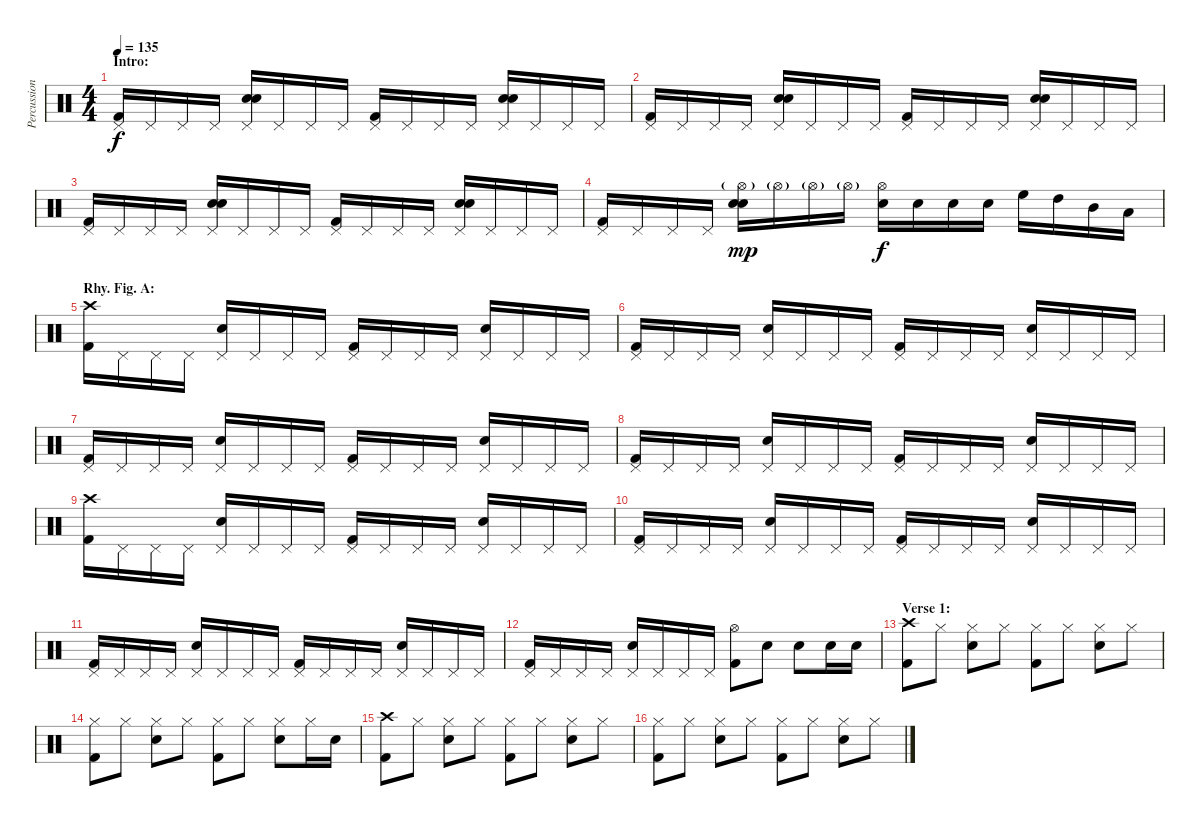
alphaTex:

\track ("Percussion" "Percussion") {instrument percussion}
\staff {score}
\articulation defaults
\ts (4 4)
\section ("" "Intro:")
\tempo 135
\clef neutral
\ks c
("Pedal Hi-Hat (hit)" "Kick (hit) 2").16{dy f} "Pedal Hi-Hat (hit)".16 "Pedal Hi-Hat (hit)".16 "Pedal Hi-Hat (hit)".16 ("Pedal Hi-Hat (hit)" "Hand Clap (hit)" "Snare (hit) 2").16 "Pedal Hi-Hat (hit)".16 "Pedal Hi-Hat (hit)".16 "Pedal Hi-Hat (hit)".16 ("Pedal Hi-Hat (hit)" "Kick (hit) 2").16 "Pedal Hi-Hat (hit)".16 "Pedal Hi-Hat (hit)".16 "Pedal Hi-Hat (hit)".16 ("Pedal Hi-Hat (hit)" "Hand Clap (hit)" "Snare (hit) 2").16 "Pedal Hi-Hat (hit)".16 "Pedal Hi-Hat (hit)".16 "Pedal Hi-Hat (hit)".16 |
("Pedal Hi-Hat (hit)" "Kick (hit) 2").16 "Pedal Hi-Hat (hit)".16 "Pedal Hi-Hat (hit)".16 "Pedal Hi-Hat (hit)".16 ("Pedal Hi-Hat (hit)" "Hand Clap (hit)" "Snare (hit) 2").16 "Pedal Hi-Hat (hit)".16 "Pedal Hi-Hat (hit)".16 "Pedal Hi-Hat (hit)".16 ("Pedal Hi-Hat (hit)" "Kick (hit) 2").16 "Pedal Hi-Hat (hit)".16 "Pedal Hi-Hat (hit)".16 "Pedal Hi-Hat (hit)".16 ("Pedal Hi-Hat (hit)" "Hand Clap (hit)" "Snare (hit) 2").16 "Pedal Hi-Hat (hit)".16 "Pedal Hi-Hat (hit)".16 "Pedal Hi-Hat (hit)".16 |
("Pedal Hi-Hat (hit)" "Kick (hit) 2").16 "Pedal Hi-Hat (hit)".16 "Pedal Hi-Hat (hit)".16 "Pedal Hi-Hat (hit)".16 ("Pedal Hi-Hat (hit)" "Hand Clap (hit)" "Snare (hit) 2").16 "Pedal Hi-Hat (hit)".16 "Pedal Hi-Hat (hit)".16 "Pedal Hi-Hat (hit)".16 ("Pedal Hi-Hat (hit)" "Kick (hit) 2").16 "Pedal Hi-Hat (hit)".16 "Pedal Hi-Hat (hit)".16 "Pedal Hi-Hat (hit)".16 ("Pedal Hi-Hat (hit)" "Hand Clap (hit)" "Snare (hit) 2").16 "Pedal Hi-Hat (hit)".16 "Pedal Hi-Hat (hit)".16 "Pedal Hi-Hat (hit)".16 |
("Pedal Hi-Hat (hit)" "Kick (hit) 2").16 "Pedal Hi-Hat (hit)".16 "Pedal Hi-Hat (hit)".16 "Pedal Hi-Hat (hit)".16 ("Hi-Hat (open)"{g} "Hand Clap (hit)" "Snare (hit) 2").16{dy mp} "Hi-Hat (open)"{g}.16 "Hi-Hat (open)"{g}.16 "Hi-Hat (open)"{g}.16 ("Hi-Hat (open)" "Snare (hit) 2").16{dy f} "Snare (hit) 2".16 "Snare (hit) 2".16 "Snare (hit) 2".16 "High Floor Tom (hit)".16 "High Tom (hit)".16 "Mid Tom (hit)".16 "Low Tom (hit)".16 |
\section ("" "Rhy. Fig. A:")
("Crash high (hit)" "Kick (hit) 2").16 "Pedal Hi-Hat (hit)".16 "Pedal Hi-Hat (hit)".16 "Pedal Hi-Hat (hit)".16 ("Pedal Hi-Hat (hit)" "Snare (hit) 2").16 "Pedal Hi-Hat (hit)".16 "Pedal Hi-Hat (hit)".16 "Pedal Hi-Hat (hit)".16 ("Pedal Hi-Hat (hit)" "Kick (hit) 2").16 "Pedal Hi-Hat (hit)".16 "Pedal Hi-Hat (hit)".16 "Pedal Hi-Hat (hit)".16 ("Pedal Hi-Hat (hit)" "Snare (hit) 2").16 "Pedal Hi-Hat (hit)".16 "Pedal Hi-Hat (hit)".16 "Pedal Hi-Hat (hit)".16 |
("Pedal Hi-Hat (hit)" "Kick (hit) 2").16 "Pedal Hi-Hat (hit)".16 "Pedal Hi-Hat (hit)".16 "Pedal Hi-Hat (hit)".16 ("Pedal Hi-Hat (hit)" "Snare (hit) 2").16 "Pedal Hi-Hat (hit)".16 "Pedal Hi-Hat (hit)".16 "Pedal Hi-Hat (hit)".16 ("Pedal Hi-Hat (hit)" "Kick (hit) 2").16 "Pedal Hi-Hat (hit)".16 "Pedal Hi-Hat (hit)".16 "Pedal Hi-Hat (hit)".16 ("Pedal Hi-Hat (hit)" "Snare (hit) 2").16 "Pedal Hi-Hat (hit)".16 "Pedal Hi-Hat (hit)".16 "Pedal Hi-Hat (hit)".16 |
("Pedal Hi-Hat (hit)" "Kick (hit) 2").16 "Pedal Hi-Hat (hit)".16 "Pedal Hi-Hat (hit)".16 "Pedal Hi-Hat (hit)".16 ("Pedal Hi-Hat (hit)" "Snare (hit) 2").16 "Pedal Hi-Hat (hit)".16 "Pedal Hi-Hat (hit)".16 "Pedal Hi-Hat (hit)".16 ("Pedal Hi-Hat (hit)" "Kick (hit) 2").16 "Pedal Hi-Hat (hit)".16 "Pedal Hi-Hat (hit)".16 "Pedal Hi-Hat (hit)".16 ("Pedal Hi-Hat (hit)" "Snare (hit) 2").16 "Pedal Hi-Hat (hit)".16 "Pedal Hi-Hat (hit)".16 "Pedal Hi-Hat (hit)".16 |
("Pedal Hi-Hat (hit)" "Kick (hit) 2").16 "Pedal Hi-Hat (hit)".16 "Pedal Hi-Hat (hit)".16 "Pedal Hi-Hat (hit)".16 ("Pedal Hi-Hat (hit)" "Snare (hit) 2").16 "Pedal Hi-Hat (hit)".16 "Pedal Hi-Hat (hit)".16 "Pedal Hi-Hat (hit)".16 ("Pedal Hi-Hat (hit)" "Kick (hit) 2").16 "Pedal Hi-Hat (hit)".16 "Pedal Hi-Hat (hit)".16 "Pedal Hi-Hat (hit)".16 ("Pedal Hi-Hat (hit)" "Snare (hit) 2").16 "Pedal Hi-Hat (hit)".16 "Pedal Hi-Hat (hit)".16 "Pedal Hi-Hat (hit)".16 |
("Crash high (hit)" "Kick (hit) 2").16 "Pedal Hi-Hat (hit)".16 "Pedal Hi-Hat (hit)".16 "Pedal Hi-Hat (hit)".16 ("Pedal Hi-Hat (hit)" "Snare (hit) 2").16 "Pedal Hi-Hat (hit)".16 "Pedal Hi-Hat (hit)".16 "Pedal Hi-Hat (hit)".16 ("Pedal Hi-Hat (hit)" "Kick (hit) 2").16 "Pedal Hi-Hat (hit)".16 "Pedal Hi-Hat (hit)".16 "Pedal Hi-Hat (hit)".16 ("Pedal Hi-Hat (hit)" "Snare (hit) 2").16 "Pedal Hi-Hat (hit)".16 "Pedal Hi-Hat (hit)".16 "Pedal Hi-Hat (hit)".16 |
("Pedal Hi-Hat (hit)" "Kick (hit) 2").16 "Pedal Hi-Hat (hit)".16 "Pedal Hi-Hat (hit)".16 "Pedal Hi-Hat (hit)".16 ("Pedal Hi-Hat (hit)" "Snare (hit) 2").16 "Pedal Hi-Hat (hit)".16 "Pedal Hi-Hat (hit)".16 "Pedal Hi-Hat (hit)".16 ("Pedal Hi-Hat (hit)" "Kick (hit) 2").16 "Pedal Hi-Hat (hit)".16 "Pedal Hi-Hat (hit)".16 "Pedal Hi-Hat (hit)".16 ("Pedal Hi-Hat (hit)" "Snare (hit) 2").16 "Pedal Hi-Hat (hit)".16 "Pedal Hi-Hat (hit)".16 "Pedal Hi-Hat (hit)".16 |
("Pedal Hi-Hat (hit)" "Kick (hit) 2").16 "Pedal Hi-Hat (hit)".16 "Pedal Hi-Hat (hit)".16 "Pedal Hi-Hat (hit)".16 ("Pedal Hi-Hat (hit)" "Snare (hit) 2").16 "Pedal Hi-Hat (hit)".16 "Pedal Hi-Hat (hit)".16 "Pedal Hi-Hat (hit)".16 ("Pedal Hi-Hat (hit)" "Kick (hit) 2").16 "Pedal Hi-Hat (hit)".16 "Pedal Hi-Hat (hit)".16 "Pedal Hi-Hat (hit)".16 ("Pedal Hi-Hat (hit)" "Snare (hit) 2").16 "Pedal Hi-Hat (hit)".16 "Pedal Hi-Hat (hit)".16 "Pedal Hi-Hat (hit)".16 |
("Pedal Hi-Hat (hit)" "Kick (hit) 2").16 "Pedal Hi-Hat (hit)".16 "Pedal Hi-Hat (hit)".16 "Pedal Hi-Hat (hit)".16 ("Pedal Hi-Hat (hit)" "Snare (hit) 2").16 "Pedal Hi-Hat (hit)".16 "Pedal Hi-Hat (hit)".16 "Pedal Hi-Hat (hit)".16 ("Hi-Hat (open)" "Kick (hit) 2").8 "Snare (hit) 2".8 "Snare (hit) 2".8 "Snare (hit) 2".16 "Snare (hit) 2".16 |
\section ("" "Verse 1:")
("Crash high (hit)" "Kick (hit) 2").8 "Hi-Hat (closed)".8 ("Hi-Hat (closed)" "Snare (hit) 2").8 "Hi-Hat (closed)".8 ("Hi-Hat (closed)" "Kick (hit) 2").8 "Hi-Hat (closed)".8 ("Hi-Hat (closed)" "Snare (hit) 2").8 "Hi-Hat (closed)".8 |
("Hi-Hat (closed)" "Kick (hit) 2").8 "Hi-Hat (closed)".8 ("Hi-Hat (closed)" "Snare (hit) 2").8 "Hi-Hat (closed)".8 ("Hi-Hat (closed)" "Kick (hit) 2").8 "Hi-Hat (closed)".8 ("Hi-Hat (closed)" "Snare (hit) 2").8 "Hi-Hat (closed)".16 "Snare (hit) 2".16 |
("Crash high (hit)" "Kick (hit) 2").8 "Hi-Hat (closed)".8 ("Hi-Hat (closed)" "Snare (hit) 2").8 "Hi-Hat (closed)".8 ("Hi-Hat (closed)" "Kick (hit) 2").8 "Hi-Hat (closed)".8 ("Hi-Hat (closed)" "Snare (hit) 2").8 "Hi-Hat (closed)".8 |
("Hi-Hat (closed)" "Kick (hit) 2").8 "Hi-Hat (closed)".8 ("Hi-Hat (closed)" "Snare (hit) 2").8 "Hi-Hat (closed)".8 ("Hi-Hat (closed)" "Kick (hit) 2").8 "Hi-Hat (closed)".8 ("Hi-Hat (closed)" "Snare (hit) 2").8 "Hi-Hat (closed)".8
